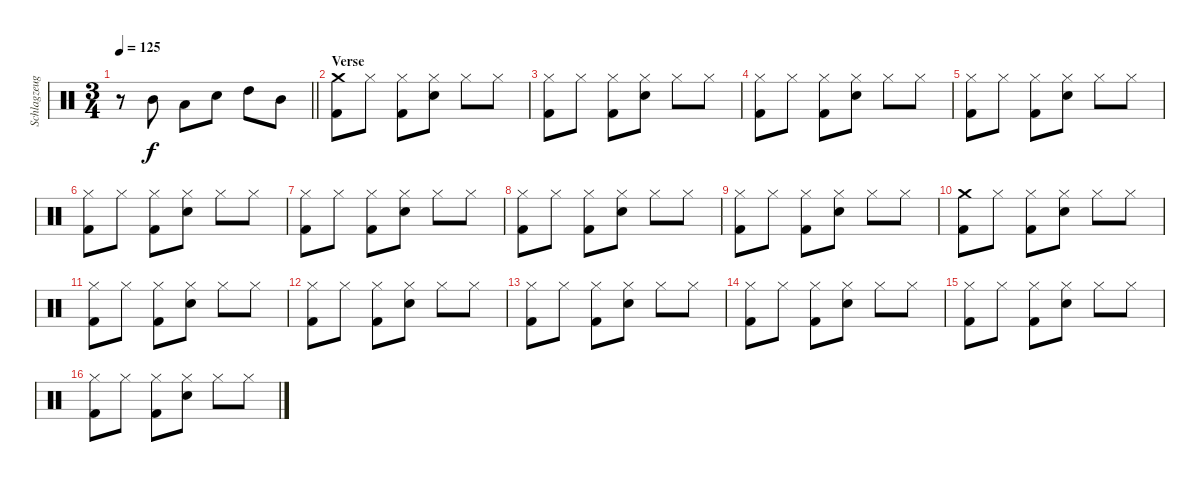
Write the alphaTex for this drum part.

\track ("Schlagzeug" "Schlagzeug") {instrument percussion}
\staff {score}
\articulation defaults
\ts (3 4)
\tempo 125
\clef neutral
\barLineRight lightlight
\ks c
r.8{dy f} "Mid Tom (hit)".8 "Low Tom (hit)".8 "Snare (hit) 2".8 "High Tom (hit)".8 "Mid Tom (hit)".8 |
\section ("" "Verse")
("Crash medium (hit)" "Kick (hit) 2").8 "Hi-Hat (closed)".8 ("Hi-Hat (closed)" "Kick (hit) 2").8 ("Hi-Hat (closed)" "Snare (hit) 2").8 "Hi-Hat (closed)".8 "Hi-Hat (closed)".8 |
("Hi-Hat (closed)" "Kick (hit) 2").8 "Hi-Hat (closed)".8 ("Hi-Hat (closed)" "Kick (hit) 2").8 ("Hi-Hat (closed)" "Snare (hit) 2").8 "Hi-Hat (closed)".8 "Hi-Hat (closed)".8 |
("Hi-Hat (closed)" "Kick (hit) 2").8 "Hi-Hat (closed)".8 ("Hi-Hat (closed)" "Kick (hit) 2").8 ("Hi-Hat (closed)" "Snare (hit) 2").8 "Hi-Hat (closed)".8 "Hi-Hat (closed)".8 |
("Hi-Hat (closed)" "Kick (hit) 2").8 "Hi-Hat (closed)".8 ("Hi-Hat (closed)" "Kick (hit) 2").8 ("Hi-Hat (closed)" "Snare (hit) 2").8 "Hi-Hat (closed)".8 "Hi-Hat (closed)".8 |
("Hi-Hat (closed)" "Kick (hit) 2").8 "Hi-Hat (closed)".8 ("Hi-Hat (closed)" "Kick (hit) 2").8 ("Hi-Hat (closed)" "Snare (hit) 2").8 "Hi-Hat (closed)".8 "Hi-Hat (closed)".8 |
("Hi-Hat (closed)" "Kick (hit) 2").8 "Hi-Hat (closed)".8 ("Hi-Hat (closed)" "Kick (hit) 2").8 ("Hi-Hat (closed)" "Snare (hit) 2").8 "Hi-Hat (closed)".8 "Hi-Hat (closed)".8 |
("Hi-Hat (closed)" "Kick (hit) 2").8 "Hi-Hat (closed)".8 ("Hi-Hat (closed)" "Kick (hit) 2").8 ("Hi-Hat (closed)" "Snare (hit) 2").8 "Hi-Hat (closed)".8 "Hi-Hat (closed)".8 |
("Hi-Hat (closed)" "Kick (hit) 2").8 "Hi-Hat (closed)".8 ("Hi-Hat (closed)" "Kick (hit) 2").8 ("Hi-Hat (closed)" "Snare (hit) 2").8 "Hi-Hat (closed)".8 "Hi-Hat (closed)".8 |
("Crash medium (hit)" "Kick (hit) 2").8 "Hi-Hat (closed)".8 ("Hi-Hat (closed)" "Kick (hit) 2").8 ("Hi-Hat (closed)" "Snare (hit) 2").8 "Hi-Hat (closed)".8 "Hi-Hat (closed)".8 |
("Hi-Hat (closed)" "Kick (hit) 2").8 "Hi-Hat (closed)".8 ("Hi-Hat (closed)" "Kick (hit) 2").8 ("Hi-Hat (closed)" "Snare (hit) 2").8 "Hi-Hat (closed)".8 "Hi-Hat (closed)".8 |
("Hi-Hat (closed)" "Kick (hit) 2").8 "Hi-Hat (closed)".8 ("Hi-Hat (closed)" "Kick (hit) 2").8 ("Hi-Hat (closed)" "Snare (hit) 2").8 "Hi-Hat (closed)".8 "Hi-Hat (closed)".8 |
("Hi-Hat (closed)" "Kick (hit) 2").8 "Hi-Hat (closed)".8 ("Hi-Hat (closed)" "Kick (hit) 2").8 ("Hi-Hat (closed)" "Snare (hit) 2").8 "Hi-Hat (closed)".8 "Hi-Hat (closed)".8 |
("Hi-Hat (closed)" "Kick (hit) 2").8 "Hi-Hat (closed)".8 ("Hi-Hat (closed)" "Kick (hit) 2").8 ("Hi-Hat (closed)" "Snare (hit) 2").8 "Hi-Hat (closed)".8 "Hi-Hat (closed)".8 |
("Hi-Hat (closed)" "Kick (hit) 2").8 "Hi-Hat (closed)".8 ("Hi-Hat (closed)" "Kick (hit) 2").8 ("Hi-Hat (closed)" "Snare (hit) 2").8 "Hi-Hat (closed)".8 "Hi-Hat (closed)".8 |
("Hi-Hat (closed)" "Kick (hit) 2").8 "Hi-Hat (closed)".8 ("Hi-Hat (closed)" "Kick (hit) 2").8 ("Hi-Hat (closed)" "Snare (hit) 2").8 "Hi-Hat (closed)".8 "Hi-Hat (closed)".8
